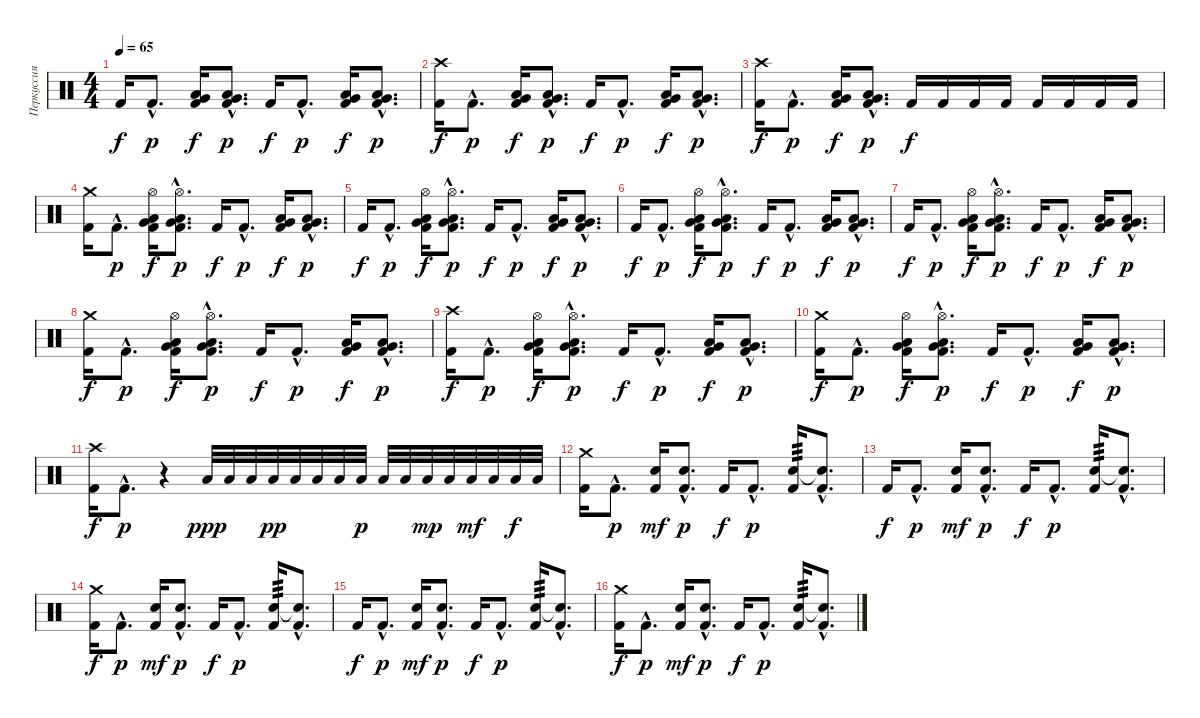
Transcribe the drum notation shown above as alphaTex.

\track ("Перкуссия" "Перкуссия") {instrument percussion}
\staff {score}
\articulation defaults
\ts (4 4)
\tempo 65
\clef neutral
\ks c "Kick (hit) 2".16{dy f} "Kick (hit) 2"{hac}.8{d dy p}
("Kick (hit) 2" "Low Tom (hit)" "Very Low Tom (hit)").16{dy f} ("Kick (hit) 2"{hac} "Low Tom (hit)"{hac} "Very Low Tom (hit)"{hac}).8{d dy p} "Kick (hit) 2".16{dy f} "Kick (hit) 2"{hac}.8{d dy p} ("Kick (hit) 2" "Low Tom (hit)" "Very Low Tom (hit)").16{dy f} ("Kick (hit) 2"{hac} "Low Tom (hit)"{hac} "Very Low Tom (hit)"{hac}).8{d dy p} |
("Kick (hit) 2" "Crash high (hit)").16{dy f} "Kick (hit) 2"{hac}.8{d dy p} ("Kick (hit) 2" "Low Tom (hit)" "Very Low Tom (hit)").16{dy f} ("Kick (hit) 2"{hac} "Low Tom (hit)"{hac} "Very Low Tom (hit)"{hac}).8{d dy p} "Kick (hit) 2".16{dy f} "Kick (hit) 2"{hac}.8{d dy p} ("Kick (hit) 2" "Low Tom (hit)" "Very Low Tom (hit)").16{dy f} ("Kick (hit) 2"{hac} "Low Tom (hit)"{hac} "Very Low Tom (hit)"{hac}).8{d dy p} |
("Kick (hit) 2" "Crash high (hit)").16{dy f} "Kick (hit) 2"{hac}.8{d dy p} ("Kick (hit) 2" "Low Tom (hit)" "Very Low Tom (hit)").16{dy f} ("Kick (hit) 2"{hac} "Low Tom (hit)"{hac} "Very Low Tom (hit)"{hac}).8{d dy p} "Kick (hit) 2".16{dy f} "Kick (hit) 2".16 "Kick (hit) 2".16 "Kick (hit) 2".16 "Kick (hit) 2".16 "Kick (hit) 2".16 "Kick (hit) 2".16 "Kick (hit) 2".16 |
("Kick (hit) 2" "Crash medium (hit)").16 "Kick (hit) 2"{hac}.8{d dy p} ("Kick (hit) 2" "Low Tom (hit)" "Very Low Tom (hit)" "Hi-Hat (open)").16{dy f} ("Kick (hit) 2"{hac} "Low Tom (hit)"{hac} "Very Low Tom (hit)"{hac} "Hi-Hat (open)"{hac}).8{d dy p} "Kick (hit) 2".16{dy f} "Kick (hit) 2"{hac}.8{d dy p} ("Kick (hit) 2" "Low Tom (hit)" "Very Low Tom (hit)").16{dy f} ("Kick (hit) 2"{hac} "Low Tom (hit)"{hac} "Very Low Tom (hit)"{hac}).8{d dy p} |
"Kick (hit) 2".16{dy f} "Kick (hit) 2"{hac}.8{d dy p} ("Kick (hit) 2" "Low Tom (hit)" "Very Low Tom (hit)" "Hi-Hat (open)").16{dy f} ("Kick (hit) 2"{hac} "Low Tom (hit)"{hac} "Very Low Tom (hit)"{hac} "Hi-Hat (open)"{hac}).8{d dy p} "Kick (hit) 2".16{dy f} "Kick (hit) 2"{hac}.8{d dy p} ("Kick (hit) 2" "Low Tom (hit)" "Very Low Tom (hit)").16{dy f} ("Kick (hit) 2"{hac} "Low Tom (hit)"{hac} "Very Low Tom (hit)"{hac}).8{d dy p} |
"Kick (hit) 2".16{dy f} "Kick (hit) 2"{hac}.8{d dy p} ("Kick (hit) 2" "Low Tom (hit)" "Very Low Tom (hit)" "Hi-Hat (open)").16{dy f} ("Kick (hit) 2"{hac} "Low Tom (hit)"{hac} "Very Low Tom (hit)"{hac} "Hi-Hat (open)"{hac}).8{d dy p} "Kick (hit) 2".16{dy f} "Kick (hit) 2"{hac}.8{d dy p} ("Kick (hit) 2" "Low Tom (hit)" "Very Low Tom (hit)").16{dy f} ("Kick (hit) 2"{hac} "Low Tom (hit)"{hac} "Very Low Tom (hit)"{hac}).8{d dy p} |
"Kick (hit) 2".16{dy f} "Kick (hit) 2"{hac}.8{d dy p} ("Kick (hit) 2" "Low Tom (hit)" "Very Low Tom (hit)" "Hi-Hat (open)").16{dy f} ("Kick (hit) 2"{hac} "Low Tom (hit)"{hac} "Very Low Tom (hit)"{hac} "Hi-Hat (open)"{hac}).8{d dy p} "Kick (hit) 2".16{dy f} "Kick (hit) 2"{hac}.8{d dy p} ("Kick (hit) 2" "Low Tom (hit)" "Very Low Tom (hit)").16{dy f} ("Kick (hit) 2"{hac} "Low Tom (hit)"{hac} "Very Low Tom (hit)"{hac}).8{d dy p} |
("Kick (hit) 2" "Crash medium (hit)").16{dy f} "Kick (hit) 2"{hac}.8{d dy p} ("Kick (hit) 2" "Low Tom (hit)" "Very Low Tom (hit)" "Hi-Hat (open)").16{dy f} ("Kick (hit) 2"{hac} "Low Tom (hit)"{hac} "Very Low Tom (hit)"{hac} "Hi-Hat (open)"{hac}).8{d dy p} "Kick (hit) 2".16{dy f} "Kick (hit) 2"{hac}.8{d dy p} ("Kick (hit) 2" "Low Tom (hit)" "Very Low Tom (hit)").16{dy f} ("Kick (hit) 2"{hac} "Low Tom (hit)"{hac} "Very Low Tom (hit)"{hac}).8{d dy p} |
("Kick (hit) 2" "Crash high (hit)").16{dy f} "Kick (hit) 2"{hac}.8{d dy p} ("Kick (hit) 2" "Low Tom (hit)" "Very Low Tom (hit)" "Hi-Hat (open)").16{dy f} ("Kick (hit) 2"{hac} "Low Tom (hit)"{hac} "Very Low Tom (hit)"{hac} "Hi-Hat (open)"{hac}).8{d dy p} "Kick (hit) 2".16{dy f} "Kick (hit) 2"{hac}.8{d dy p} ("Kick (hit) 2" "Low Tom (hit)" "Very Low Tom (hit)").16{dy f} ("Kick (hit) 2"{hac} "Low Tom (hit)"{hac} "Very Low Tom (hit)"{hac}).8{d dy p} |
("Kick (hit) 2" "Crash medium (hit)").16{dy f} "Kick (hit) 2"{hac}.8{d dy p} ("Kick (hit) 2" "Low Tom (hit)" "Very Low Tom (hit)" "Hi-Hat (open)").16{dy f} ("Kick (hit) 2"{hac} "Low Tom (hit)"{hac} "Very Low Tom (hit)"{hac} "Hi-Hat (open)"{hac}).8{d dy p} "Kick (hit) 2".16{dy f} "Kick (hit) 2"{hac}.8{d dy p} ("Kick (hit) 2" "Low Tom (hit)" "Very Low Tom (hit)").16{dy f} ("Kick (hit) 2"{hac} "Low Tom (hit)"{hac} "Very Low Tom (hit)"{hac}).8{d dy p} |
("Kick (hit) 2" "Crash high (hit)").16{dy f} "Kick (hit) 2"{hac}.8{d dy p} r.4 "Low Tom (hit)".32{dy ppp} "Low Tom (hit)".32 "Low Tom (hit)".32 "Low Tom (hit)".32{dy pp} "Low Tom (hit)".32 "Low Tom (hit)".32 "Low Tom (hit)".32 "Low Tom (hit)".32{dy p} "Low Tom (hit)".32 "Low Tom (hit)".32 "Low Tom (hit)".32{dy mp} "Low Tom (hit)".32 "Low Tom (hit)".32{dy mf} "Low Tom (hit)".32 "Low Tom (hit)".32{dy f} "Low Tom (hit)".32 |
("Kick (hit) 2" "Crash medium (hit)").16 "Kick (hit) 2"{hac}.8{d dy p} ("Kick (hit) 2" "Electric Snare (hit)").16{dy mf} ("Kick (hit) 2"{hac} "Electric Snare (hit)"{hac}).8{d dy p} "Kick (hit) 2".16{dy f} "Kick (hit) 2"{hac}.8{d dy p} ("Kick (hit) 2" "Electric Snare (hit)").16{tp 3} ("Kick (hit) 2"{hac} "Snare (hit)"{hac t}).8{d} |
"Kick (hit) 2".16{dy f} "Kick (hit) 2"{hac}.8{d dy p} ("Kick (hit) 2" "Electric Snare (hit)").16{dy mf} ("Kick (hit) 2"{hac} "Electric Snare (hit)"{hac}).8{d dy p} "Kick (hit) 2".16{dy f} "Kick (hit) 2"{hac}.8{d dy p} ("Kick (hit) 2" "Electric Snare (hit)").16{tp 3} ("Kick (hit) 2"{hac} "Snare (hit)"{hac t}).8{d} |
("Kick (hit) 2" "Crash medium (hit)").16{dy f} "Kick (hit) 2"{hac}.8{d dy p} ("Kick (hit) 2" "Electric Snare (hit)").16{dy mf} ("Kick (hit) 2"{hac} "Electric Snare (hit)"{hac}).8{d dy p} "Kick (hit) 2".16{dy f} "Kick (hit) 2"{hac}.8{d dy p} ("Kick (hit) 2" "Electric Snare (hit)").16{tp 3} ("Kick (hit) 2"{hac} "Snare (hit)"{hac t}).8{d} |
"Kick (hit) 2".16{dy f} "Kick (hit) 2"{hac}.8{d dy p} ("Kick (hit) 2" "Electric Snare (hit)").16{dy mf} ("Kick (hit) 2"{hac} "Electric Snare (hit)"{hac}).8{d dy p} "Kick (hit) 2".16{dy f} "Kick (hit) 2"{hac}.8{d dy p} ("Kick (hit) 2" "Electric Snare (hit)").16{tp 3} ("Kick (hit) 2"{hac} "Snare (hit)"{hac t}).8{d} |
("Kick (hit) 2" "Crash medium (hit)").16{dy f} "Kick (hit) 2"{hac}.8{d dy p} ("Kick (hit) 2" "Electric Snare (hit)").16{dy mf} ("Kick (hit) 2"{hac} "Electric Snare (hit)"{hac}).8{d dy p} "Kick (hit) 2".16{dy f} "Kick (hit) 2"{hac}.8{d dy p} ("Kick (hit) 2" "Electric Snare (hit)").16{tp 3} ("Kick (hit) 2"{hac} "Snare (hit)"{hac t}).8{d}
